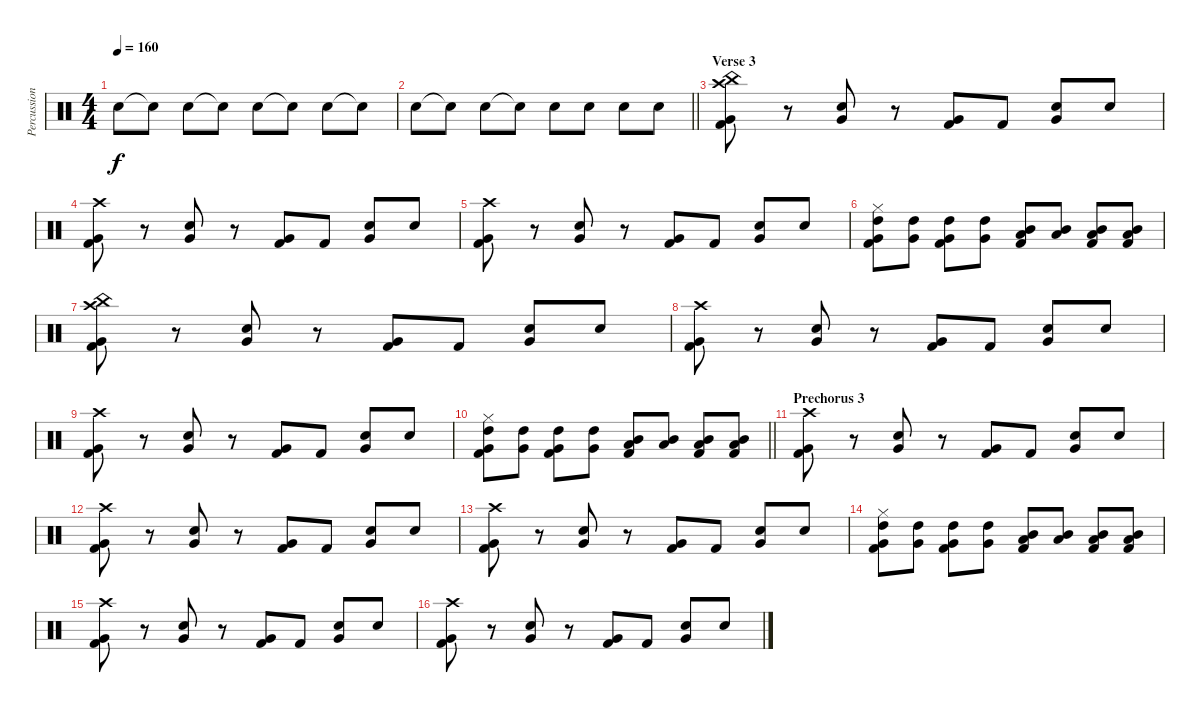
\track ("Percussion" "Percussion") {instrument percussion}
\staff {score}
\articulation defaults
\ts (4 4)
\tempo 160
\clef neutral
\ks c "Snare (hit) 2".8{dy f} "Snare (hit)"{t}.8 "Snare (hit) 2".8 "Snare (hit)"{t}.8 "Snare (hit) 2".8 "Snare (hit)"{t}.8 "Snare (hit) 2".8 "Snare (hit)"{t}.8
|
\barLineRight lightlight "Snare (hit) 2".8 "Snare (hit)"{t}.8 "Snare (hit) 2".8 "Snare (hit)"{t}.8 "Snare (hit) 2".8 "Snare (hit) 2".8 "Snare (hit) 2".8 "Snare (hit) 2".8
|
\section ("" "Verse 3")
("Crash high (hit)" "China (hit)" "Very Low Tom (hit)" "Kick (hit) 2").8 r.8 ("Snare (hit) 2" "Very Low Tom (hit)").8 r.8 ("Very Low Tom (hit)" "Kick (hit) 2").8 "Kick (hit) 2".8 ("Snare (hit) 2" "Very Low Tom (hit)").8 "Snare (hit) 2".8 |
("Crash high (hit)" "Very Low Tom (hit)" "Kick (hit) 2").8 r.8 ("Snare (hit) 2" "Very Low Tom (hit)").8 r.8 ("Very Low Tom (hit)" "Kick (hit) 2").8 "Kick (hit) 2".8 ("Snare (hit) 2" "Very Low Tom (hit)").8 "Snare (hit) 2".8 |
("Crash high (hit)" "Very Low Tom (hit)" "Kick (hit) 2").8 r.8 ("Snare (hit) 2" "Very Low Tom (hit)").8 r.8 ("Very Low Tom (hit)" "Kick (hit) 2").8 "Kick (hit) 2".8 ("Snare (hit) 2" "Very Low Tom (hit)").8 "Snare (hit) 2".8 |
("Hi-Hat (closed)" "High Tom (hit)" "Very Low Tom (hit)" "Kick (hit) 2").8 ("High Tom (hit)" "Very Low Tom (hit)").8 ("High Tom (hit)" "Very Low Tom (hit)" "Kick (hit) 2").8 ("High Tom (hit)" "Very Low Tom (hit)").8 ("Mid Tom (hit)" "Low Floor Tom (hit)" "Kick (hit) 2").8 ("Mid Tom (hit)" "Low Floor Tom (hit)").8 ("Mid Tom (hit)" "Low Floor Tom (hit)" "Kick (hit) 2").8 ("Mid Tom (hit)" "Low Floor Tom (hit)" "Kick (hit) 2").8 |
("Crash high (hit)" "China (hit)" "Very Low Tom (hit)" "Kick (hit) 2").8 r.8 ("Snare (hit) 2" "Very Low Tom (hit)").8 r.8 ("Very Low Tom (hit)" "Kick (hit) 2").8 "Kick (hit) 2".8 ("Snare (hit) 2" "Very Low Tom (hit)").8 "Snare (hit) 2".8 |
("Crash high (hit)" "Very Low Tom (hit)" "Kick (hit) 2").8 r.8 ("Snare (hit) 2" "Very Low Tom (hit)").8 r.8 ("Very Low Tom (hit)" "Kick (hit) 2").8 "Kick (hit) 2".8 ("Snare (hit) 2" "Very Low Tom (hit)").8 "Snare (hit) 2".8 |
("Crash high (hit)" "Very Low Tom (hit)" "Kick (hit) 2").8 r.8 ("Snare (hit) 2" "Very Low Tom (hit)").8 r.8 ("Very Low Tom (hit)" "Kick (hit) 2").8 "Kick (hit) 2".8 ("Snare (hit) 2" "Very Low Tom (hit)").8 "Snare (hit) 2".8 |
\barLineRight lightlight
("Hi-Hat (closed)" "High Tom (hit)" "Very Low Tom (hit)" "Kick (hit) 2").8 ("High Tom (hit)" "Very Low Tom (hit)").8 ("High Tom (hit)" "Very Low Tom (hit)" "Kick (hit) 2").8 ("High Tom (hit)" "Very Low Tom (hit)").8 ("Mid Tom (hit)" "Low Floor Tom (hit)" "Kick (hit) 2").8 ("Mid Tom (hit)" "Low Floor Tom (hit)").8 ("Mid Tom (hit)" "Low Floor Tom (hit)" "Kick (hit) 2").8 ("Mid Tom (hit)" "Low Floor Tom (hit)" "Kick (hit) 2").8 |
\section ("" "Prechorus 3")
("Crash high (hit)" "Very Low Tom (hit)" "Kick (hit) 2").8 r.8 ("Snare (hit) 2" "Very Low Tom (hit)").8 r.8 ("Very Low Tom (hit)" "Kick (hit) 2").8 "Kick (hit) 2".8 ("Snare (hit) 2" "Very Low Tom (hit)").8 "Snare (hit) 2".8 |
("Crash high (hit)" "Very Low Tom (hit)" "Kick (hit) 2").8 r.8 ("Snare (hit) 2" "Very Low Tom (hit)").8 r.8 ("Very Low Tom (hit)" "Kick (hit) 2").8 "Kick (hit) 2".8 ("Snare (hit) 2" "Very Low Tom (hit)").8 "Snare (hit) 2".8 |
("Crash high (hit)" "Very Low Tom (hit)" "Kick (hit) 2").8 r.8 ("Snare (hit) 2" "Very Low Tom (hit)").8 r.8 ("Very Low Tom (hit)" "Kick (hit) 2").8 "Kick (hit) 2".8 ("Snare (hit) 2" "Very Low Tom (hit)").8 "Snare (hit) 2".8 |
("Hi-Hat (closed)" "High Tom (hit)" "Very Low Tom (hit)" "Kick (hit) 2").8 ("High Tom (hit)" "Very Low Tom (hit)").8 ("High Tom (hit)" "Very Low Tom (hit)" "Kick (hit) 2").8 ("High Tom (hit)" "Very Low Tom (hit)").8 ("Mid Tom (hit)" "Low Floor Tom (hit)" "Kick (hit) 2").8 ("Mid Tom (hit)" "Low Floor Tom (hit)").8 ("Mid Tom (hit)" "Low Floor Tom (hit)" "Kick (hit) 2").8 ("Mid Tom (hit)" "Low Floor Tom (hit)" "Kick (hit) 2").8 |
("Crash high (hit)" "Very Low Tom (hit)" "Kick (hit) 2").8 r.8 ("Snare (hit) 2" "Very Low Tom (hit)").8 r.8 ("Very Low Tom (hit)" "Kick (hit) 2").8 "Kick (hit) 2".8 ("Snare (hit) 2" "Very Low Tom (hit)").8 "Snare (hit) 2".8 |
("Crash high (hit)" "Very Low Tom (hit)" "Kick (hit) 2").8 r.8 ("Snare (hit) 2" "Very Low Tom (hit)").8 r.8 ("Very Low Tom (hit)" "Kick (hit) 2").8 "Kick (hit) 2".8 ("Snare (hit) 2" "Very Low Tom (hit)").8 "Snare (hit) 2".8
